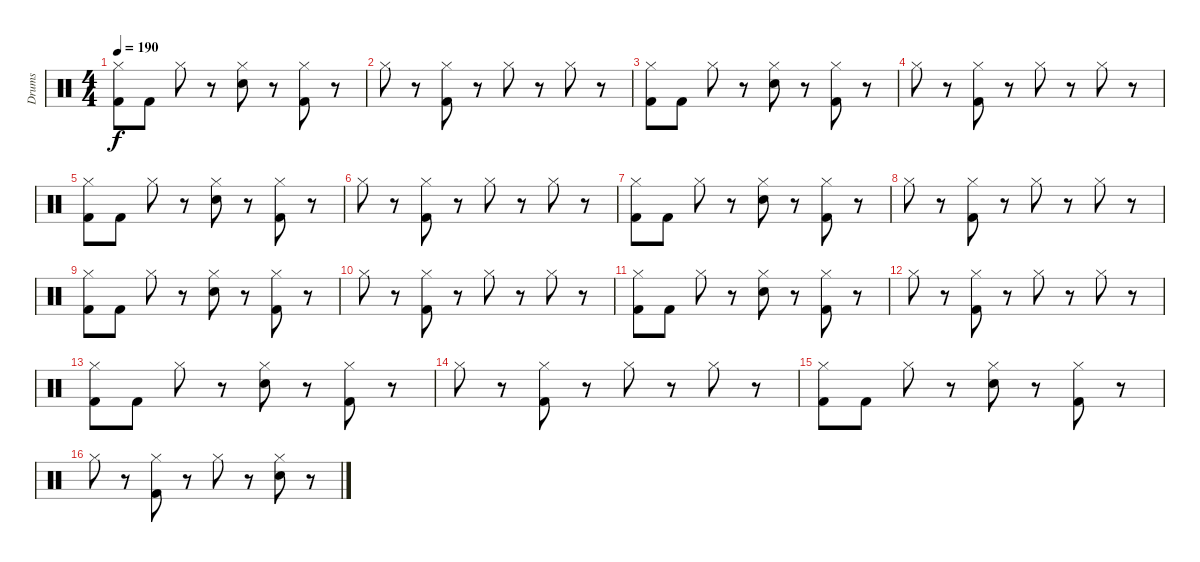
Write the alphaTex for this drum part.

\track ("Drums" "Drums") {instrument percussion}
\staff {score}
\articulation defaults
\ts (4 4)
\tempo 190
\clef neutral
\ks c
("Hi-Hat (closed)" "Kick (hit) 2").8{dy f} "Kick (hit) 2".8 "Hi-Hat (closed)".8 r.8 ("Hi-Hat (closed)" "Electric Snare (hit)").8 r.8 ("Hi-Hat (closed)" "Kick (hit) 2").8 r.8 |
"Hi-Hat (closed)".8 r.8 ("Hi-Hat (closed)" "Kick (hit) 2").8 r.8 "Hi-Hat (closed)".8 r.8 "Hi-Hat (closed)".8 r.8 |
("Hi-Hat (closed)" "Kick (hit) 2").8 "Kick (hit) 2".8 "Hi-Hat (closed)".8 r.8 ("Hi-Hat (closed)" "Electric Snare (hit)").8 r.8 ("Hi-Hat (closed)" "Kick (hit) 2").8 r.8 |
"Hi-Hat (closed)".8 r.8 ("Hi-Hat (closed)" "Kick (hit) 2").8 r.8 "Hi-Hat (closed)".8 r.8 "Hi-Hat (closed)".8 r.8 |
("Hi-Hat (closed)" "Kick (hit) 2").8 "Kick (hit) 2".8 "Hi-Hat (closed)".8 r.8 ("Hi-Hat (closed)" "Electric Snare (hit)").8 r.8 ("Hi-Hat (closed)" "Kick (hit) 2").8 r.8 |
"Hi-Hat (closed)".8 r.8 ("Hi-Hat (closed)" "Kick (hit) 2").8 r.8 "Hi-Hat (closed)".8 r.8 "Hi-Hat (closed)".8 r.8 |
("Hi-Hat (closed)" "Kick (hit) 2").8 "Kick (hit) 2".8 "Hi-Hat (closed)".8 r.8 ("Hi-Hat (closed)" "Electric Snare (hit)").8 r.8 ("Hi-Hat (closed)" "Kick (hit) 2").8 r.8 |
"Hi-Hat (closed)".8 r.8 ("Hi-Hat (closed)" "Kick (hit) 2").8 r.8 "Hi-Hat (closed)".8 r.8 "Hi-Hat (closed)".8 r.8 |
("Hi-Hat (closed)" "Kick (hit) 2").8 "Kick (hit) 2".8 "Hi-Hat (closed)".8 r.8 ("Hi-Hat (closed)" "Electric Snare (hit)").8 r.8 ("Hi-Hat (closed)" "Kick (hit) 2").8 r.8 |
"Hi-Hat (closed)".8 r.8 ("Hi-Hat (closed)" "Kick (hit) 2").8 r.8 "Hi-Hat (closed)".8 r.8 "Hi-Hat (closed)".8 r.8 |
("Hi-Hat (closed)" "Kick (hit) 2").8 "Kick (hit) 2".8 "Hi-Hat (closed)".8 r.8 ("Hi-Hat (closed)" "Electric Snare (hit)").8 r.8 ("Hi-Hat (closed)" "Kick (hit) 2").8 r.8 |
"Hi-Hat (closed)".8 r.8 ("Hi-Hat (closed)" "Kick (hit) 2").8 r.8 "Hi-Hat (closed)".8 r.8 "Hi-Hat (closed)".8 r.8 |
("Hi-Hat (closed)" "Kick (hit) 2").8 "Kick (hit) 2".8 "Hi-Hat (closed)".8 r.8 ("Hi-Hat (closed)" "Electric Snare (hit)").8 r.8 ("Hi-Hat (closed)" "Kick (hit) 2").8 r.8 |
"Hi-Hat (closed)".8 r.8 ("Hi-Hat (closed)" "Kick (hit) 2").8 r.8 "Hi-Hat (closed)".8 r.8 "Hi-Hat (closed)".8 r.8 |
("Hi-Hat (closed)" "Kick (hit) 2").8 "Kick (hit) 2".8 "Hi-Hat (closed)".8 r.8 ("Hi-Hat (closed)" "Electric Snare (hit)").8 r.8 ("Hi-Hat (closed)" "Kick (hit) 2").8 r.8 |
"Hi-Hat (closed)".8 r.8 ("Hi-Hat (closed)" "Kick (hit) 2").8 r.8 "Hi-Hat (closed)".8 r.8 ("Hi-Hat (closed)" "Electric Snare (hit)").8 r.8
